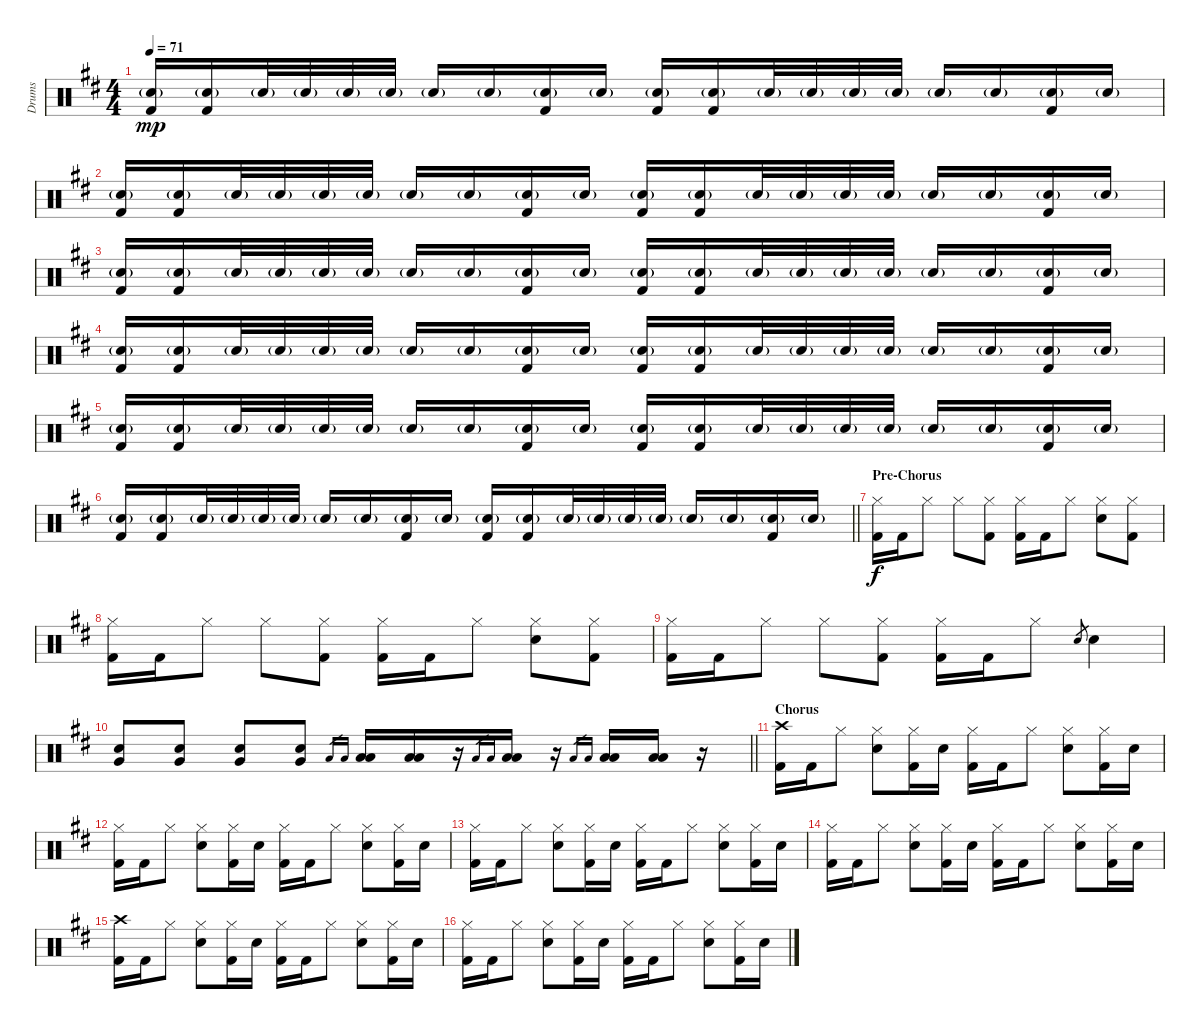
\track ("Drums" "Drums") {instrument percussion}
\staff {score}
\articulation defaults
\ts (4 4)
\tempo 71
\clef neutral
\ks bminor
("Snare (hit) 2"{g} "Kick (hit) 2").16{dy mp} ("Snare (hit) 2"{g} "Kick (hit) 2").16 "Snare (hit) 2"{g}.32 "Snare (hit) 2"{g}.32 "Snare (hit) 2"{g}.32 "Snare (hit) 2"{g}.32 "Snare (hit) 2"{g}.16 "Snare (hit) 2"{g}.16 ("Snare (hit) 2"{g} "Kick (hit) 2").16 "Snare (hit) 2"{g}.16 ("Snare (hit) 2"{g} "Kick (hit) 2").16 ("Snare (hit) 2"{g} "Kick (hit) 2").16 "Snare (hit) 2"{g}.32 "Snare (hit) 2"{g}.32 "Snare (hit) 2"{g}.32 "Snare (hit) 2"{g}.32 "Snare (hit) 2"{g}.16 "Snare (hit) 2"{g}.16 ("Snare (hit) 2"{g} "Kick (hit) 2").16 "Snare (hit) 2"{g}.16 |
("Snare (hit) 2"{g} "Kick (hit) 2").16 ("Snare (hit) 2"{g} "Kick (hit) 2").16 "Snare (hit) 2"{g}.32 "Snare (hit) 2"{g}.32 "Snare (hit) 2"{g}.32 "Snare (hit) 2"{g}.32 "Snare (hit) 2"{g}.16 "Snare (hit) 2"{g}.16 ("Snare (hit) 2"{g} "Kick (hit) 2").16 "Snare (hit) 2"{g}.16 ("Snare (hit) 2"{g} "Kick (hit) 2").16 ("Snare (hit) 2"{g} "Kick (hit) 2").16 "Snare (hit) 2"{g}.32 "Snare (hit) 2"{g}.32 "Snare (hit) 2"{g}.32 "Snare (hit) 2"{g}.32 "Snare (hit) 2"{g}.16 "Snare (hit) 2"{g}.16 ("Snare (hit) 2"{g} "Kick (hit) 2").16 "Snare (hit) 2"{g}.16 |
("Snare (hit) 2"{g} "Kick (hit) 2").16 ("Snare (hit) 2"{g} "Kick (hit) 2").16 "Snare (hit) 2"{g}.32 "Snare (hit) 2"{g}.32 "Snare (hit) 2"{g}.32 "Snare (hit) 2"{g}.32 "Snare (hit) 2"{g}.16 "Snare (hit) 2"{g}.16 ("Snare (hit) 2"{g} "Kick (hit) 2").16 "Snare (hit) 2"{g}.16 ("Snare (hit) 2"{g} "Kick (hit) 2").16 ("Snare (hit) 2"{g} "Kick (hit) 2").16 "Snare (hit) 2"{g}.32 "Snare (hit) 2"{g}.32 "Snare (hit) 2"{g}.32 "Snare (hit) 2"{g}.32 "Snare (hit) 2"{g}.16 "Snare (hit) 2"{g}.16 ("Snare (hit) 2"{g} "Kick (hit) 2").16 "Snare (hit) 2"{g}.16 |
("Snare (hit) 2"{g} "Kick (hit) 2").16 ("Snare (hit) 2"{g} "Kick (hit) 2").16 "Snare (hit) 2"{g}.32 "Snare (hit) 2"{g}.32 "Snare (hit) 2"{g}.32 "Snare (hit) 2"{g}.32 "Snare (hit) 2"{g}.16 "Snare (hit) 2"{g}.16 ("Snare (hit) 2"{g} "Kick (hit) 2").16 "Snare (hit) 2"{g}.16 ("Snare (hit) 2"{g} "Kick (hit) 2").16 ("Snare (hit) 2"{g} "Kick (hit) 2").16 "Snare (hit) 2"{g}.32 "Snare (hit) 2"{g}.32 "Snare (hit) 2"{g}.32 "Snare (hit) 2"{g}.32 "Snare (hit) 2"{g}.16 "Snare (hit) 2"{g}.16 ("Snare (hit) 2"{g} "Kick (hit) 2").16 "Snare (hit) 2"{g}.16 |
("Snare (hit) 2"{g} "Kick (hit) 2").16 ("Snare (hit) 2"{g} "Kick (hit) 2").16 "Snare (hit) 2"{g}.32 "Snare (hit) 2"{g}.32 "Snare (hit) 2"{g}.32 "Snare (hit) 2"{g}.32 "Snare (hit) 2"{g}.16 "Snare (hit) 2"{g}.16 ("Snare (hit) 2"{g} "Kick (hit) 2").16 "Snare (hit) 2"{g}.16 ("Snare (hit) 2"{g} "Kick (hit) 2").16 ("Snare (hit) 2"{g} "Kick (hit) 2").16 "Snare (hit) 2"{g}.32 "Snare (hit) 2"{g}.32 "Snare (hit) 2"{g}.32 "Snare (hit) 2"{g}.32 "Snare (hit) 2"{g}.16 "Snare (hit) 2"{g}.16 ("Snare (hit) 2"{g} "Kick (hit) 2").16 "Snare (hit) 2"{g}.16 |
\barLineRight lightlight
("Snare (hit) 2"{g} "Kick (hit) 2").16 ("Snare (hit) 2"{g} "Kick (hit) 2").16 "Snare (hit) 2"{g}.32 "Snare (hit) 2"{g}.32 "Snare (hit) 2"{g}.32 "Snare (hit) 2"{g}.32 "Snare (hit) 2"{g}.16 "Snare (hit) 2"{g}.16 ("Snare (hit) 2"{g} "Kick (hit) 2").16 "Snare (hit) 2"{g}.16 ("Snare (hit) 2"{g} "Kick (hit) 2").16 ("Snare (hit) 2"{g} "Kick (hit) 2").16 "Snare (hit) 2"{g}.32 "Snare (hit) 2"{g}.32 "Snare (hit) 2"{g}.32 "Snare (hit) 2"{g}.32 "Snare (hit) 2"{g}.16 "Snare (hit) 2"{g}.16 ("Snare (hit) 2"{g} "Kick (hit) 2").16 "Snare (hit) 2"{g}.16 |
\section ("" "Pre-Chorus")
("Hi-Hat (closed)" "Kick (hit) 2").16{dy f} "Kick (hit) 2".16 "Hi-Hat (closed)".8 "Hi-Hat (closed)".8 ("Hi-Hat (closed)" "Kick (hit) 2").8 ("Hi-Hat (closed)" "Kick (hit) 2").16 "Kick (hit) 2".16 "Hi-Hat (closed)".8 ("Hi-Hat (closed)" "Snare (hit) 2").8 ("Hi-Hat (closed)" "Kick (hit) 2").8 |
("Hi-Hat (closed)" "Kick (hit) 2").16 "Kick (hit) 2".16 "Hi-Hat (closed)".8 "Hi-Hat (closed)".8 ("Hi-Hat (closed)" "Kick (hit) 2").8 ("Hi-Hat (closed)" "Kick (hit) 2").16 "Kick (hit) 2".16 "Hi-Hat (closed)".8 ("Hi-Hat (closed)" "Snare (hit) 2").8 ("Hi-Hat (closed)" "Kick (hit) 2").8 |
("Hi-Hat (closed)" "Kick (hit) 2").16 "Kick (hit) 2".16 "Hi-Hat (closed)".8 "Hi-Hat (closed)".8 ("Hi-Hat (closed)" "Kick (hit) 2").8 ("Hi-Hat (closed)" "Kick (hit) 2").16 "Kick (hit) 2".16 "Hi-Hat (closed)".8 "Snare (hit) 2".8{gr} "Snare (hit) 2".4 |
\barLineRight lightlight
("Very Low Tom (hit)" "Snare (hit) 2").8 ("Very Low Tom (hit)" "Snare (hit) 2").8 ("Very Low Tom (hit)" "Snare (hit) 2").8 ("Very Low Tom (hit)" "Snare (hit) 2").8 "Low Tom (hit)".16{gr} "Low Tom (hit)".16{gr} ("Low Tom (hit)" "Low Tom (hit)").16 ("Low Tom (hit)" "Low Tom (hit)").16 r.16 "Low Tom (hit)".16{gr} "Low Tom (hit)".16{gr} ("Low Tom (hit)" "Low Tom (hit)").16 r.16 "Low Tom (hit)".16{gr} "Low Tom (hit)".16{gr} ("Low Tom (hit)" "Low Tom (hit)").16 ("Low Tom (hit)" "Low Tom (hit)").16 r.16 |
\section ("" "Chorus")
("Crash high (hit)" "Kick (hit) 2").16 "Kick (hit) 2".16 "Hi-Hat (closed)".8 ("Hi-Hat (closed)" "Snare (hit) 2").8 ("Hi-Hat (closed)" "Kick (hit) 2").16 "Snare (hit) 2".16 ("Hi-Hat (closed)" "Kick (hit) 2").16 "Kick (hit) 2".16 "Hi-Hat (closed)".8 ("Hi-Hat (closed)" "Snare (hit) 2").8 ("Hi-Hat (closed)" "Kick (hit) 2").16 "Snare (hit) 2".16 |
("Hi-Hat (closed)" "Kick (hit) 2").16 "Kick (hit) 2".16 "Hi-Hat (closed)".8 ("Hi-Hat (closed)" "Snare (hit) 2").8 ("Hi-Hat (closed)" "Kick (hit) 2").16 "Snare (hit) 2".16 ("Hi-Hat (closed)" "Kick (hit) 2").16 "Kick (hit) 2".16 "Hi-Hat (closed)".8 ("Hi-Hat (closed)" "Snare (hit) 2").8 ("Hi-Hat (closed)" "Kick (hit) 2").16 "Snare (hit) 2".16 |
("Hi-Hat (closed)" "Kick (hit) 2").16 "Kick (hit) 2".16 "Hi-Hat (closed)".8 ("Hi-Hat (closed)" "Snare (hit) 2").8 ("Hi-Hat (closed)" "Kick (hit) 2").16 "Snare (hit) 2".16 ("Hi-Hat (closed)" "Kick (hit) 2").16 "Kick (hit) 2".16 "Hi-Hat (closed)".8 ("Hi-Hat (closed)" "Snare (hit) 2").8 ("Hi-Hat (closed)" "Kick (hit) 2").16 "Snare (hit) 2".16 |
("Hi-Hat (closed)" "Kick (hit) 2").16 "Kick (hit) 2".16 "Hi-Hat (closed)".8 ("Hi-Hat (closed)" "Snare (hit) 2").8 ("Hi-Hat (closed)" "Kick (hit) 2").16 "Snare (hit) 2".16 ("Hi-Hat (closed)" "Kick (hit) 2").16 "Kick (hit) 2".16 "Hi-Hat (closed)".8 ("Hi-Hat (closed)" "Snare (hit) 2").8 ("Hi-Hat (closed)" "Kick (hit) 2").16 "Snare (hit) 2".16 |
("Crash high (hit)" "Kick (hit) 2").16 "Kick (hit) 2".16 "Hi-Hat (closed)".8 ("Hi-Hat (closed)" "Snare (hit) 2").8 ("Hi-Hat (closed)" "Kick (hit) 2").16 "Snare (hit) 2".16 ("Hi-Hat (closed)" "Kick (hit) 2").16 "Kick (hit) 2".16 "Hi-Hat (closed)".8 ("Hi-Hat (closed)" "Snare (hit) 2").8 ("Hi-Hat (closed)" "Kick (hit) 2").16 "Snare (hit) 2".16 |
("Hi-Hat (closed)" "Kick (hit) 2").16 "Kick (hit) 2".16 "Hi-Hat (closed)".8 ("Hi-Hat (closed)" "Snare (hit) 2").8 ("Hi-Hat (closed)" "Kick (hit) 2").16 "Snare (hit) 2".16 ("Hi-Hat (closed)" "Kick (hit) 2").16 "Kick (hit) 2".16 "Hi-Hat (closed)".8 ("Hi-Hat (closed)" "Snare (hit) 2").8 ("Hi-Hat (closed)" "Kick (hit) 2").16 "Snare (hit) 2".16
